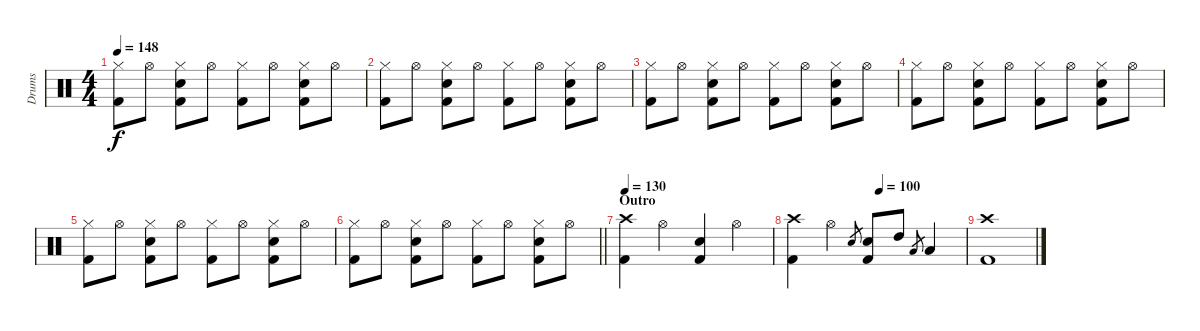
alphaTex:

\track ("Drums" "Drums") {instrument percussion}
\staff {score}
\articulation defaults
\ts (4 4)
\tempo 148
\clef neutral
\ks c
("Hi-Hat (closed)" "Kick (hit) 2").8{dy f} "Hi-Hat (open)".8 ("Hi-Hat (closed)" "Electric Snare (hit)" "Kick (hit) 2").8 "Hi-Hat (open)".8 ("Hi-Hat (closed)" "Kick (hit) 2").8 "Hi-Hat (open)".8 ("Hi-Hat (closed)" "Electric Snare (hit)" "Kick (hit) 2").8 "Hi-Hat (open)".8 |
("Hi-Hat (closed)" "Kick (hit) 2").8 "Hi-Hat (open)".8 ("Hi-Hat (closed)" "Electric Snare (hit)" "Kick (hit) 2").8 "Hi-Hat (open)".8 ("Hi-Hat (closed)" "Kick (hit) 2").8 "Hi-Hat (open)".8 ("Hi-Hat (closed)" "Electric Snare (hit)" "Kick (hit) 2").8 "Hi-Hat (open)".8 |
("Hi-Hat (closed)" "Kick (hit) 2").8 "Hi-Hat (open)".8 ("Hi-Hat (closed)" "Electric Snare (hit)" "Kick (hit) 2").8 "Hi-Hat (open)".8 ("Hi-Hat (closed)" "Kick (hit) 2").8 "Hi-Hat (open)".8 ("Hi-Hat (closed)" "Electric Snare (hit)" "Kick (hit) 2").8 "Hi-Hat (open)".8 |
("Hi-Hat (closed)" "Kick (hit) 2").8 "Hi-Hat (open)".8 ("Hi-Hat (closed)" "Electric Snare (hit)" "Kick (hit) 2").8 "Hi-Hat (open)".8 ("Hi-Hat (closed)" "Kick (hit) 2").8 "Hi-Hat (open)".8 ("Hi-Hat (closed)" "Electric Snare (hit)" "Kick (hit) 2").8 "Hi-Hat (open)".8 |
("Hi-Hat (closed)" "Kick (hit) 2").8 "Hi-Hat (open)".8 ("Hi-Hat (closed)" "Electric Snare (hit)" "Kick (hit) 2").8 "Hi-Hat (open)".8 ("Hi-Hat (closed)" "Kick (hit) 2").8 "Hi-Hat (open)".8 ("Hi-Hat (closed)" "Electric Snare (hit)" "Kick (hit) 2").8 "Hi-Hat (open)".8 |
\barLineRight lightlight
("Hi-Hat (closed)" "Kick (hit) 2").8 "Hi-Hat (open)".8 ("Hi-Hat (closed)" "Electric Snare (hit)" "Kick (hit) 2").8 "Hi-Hat (open)".8 ("Hi-Hat (closed)" "Kick (hit) 2").8 "Hi-Hat (open)".8 ("Hi-Hat (closed)" "Electric Snare (hit)" "Kick (hit) 2").8 "Hi-Hat (open)".8 |
\section ("" "Outro")
\tempo 130
("Crash high (hit)" "Kick (hit) 2").4 "Hi-Hat (open)".4 ("Electric Snare (hit)" "Kick (hit) 2").4 "Hi-Hat (open)".4 |
\tempo (100 0.5)
("Crash high (hit)" "Kick (hit) 2").4 "Hi-Hat (open)".4 "Electric Snare (hit)".8{gr} ("Electric Snare (hit)" "Kick (hit) 2").8 "High Tom (hit)".8 "Low Tom (hit)".8{gr} "Low Tom (hit)".4 |
("Crash high (hit)" "Kick (hit) 2").1
